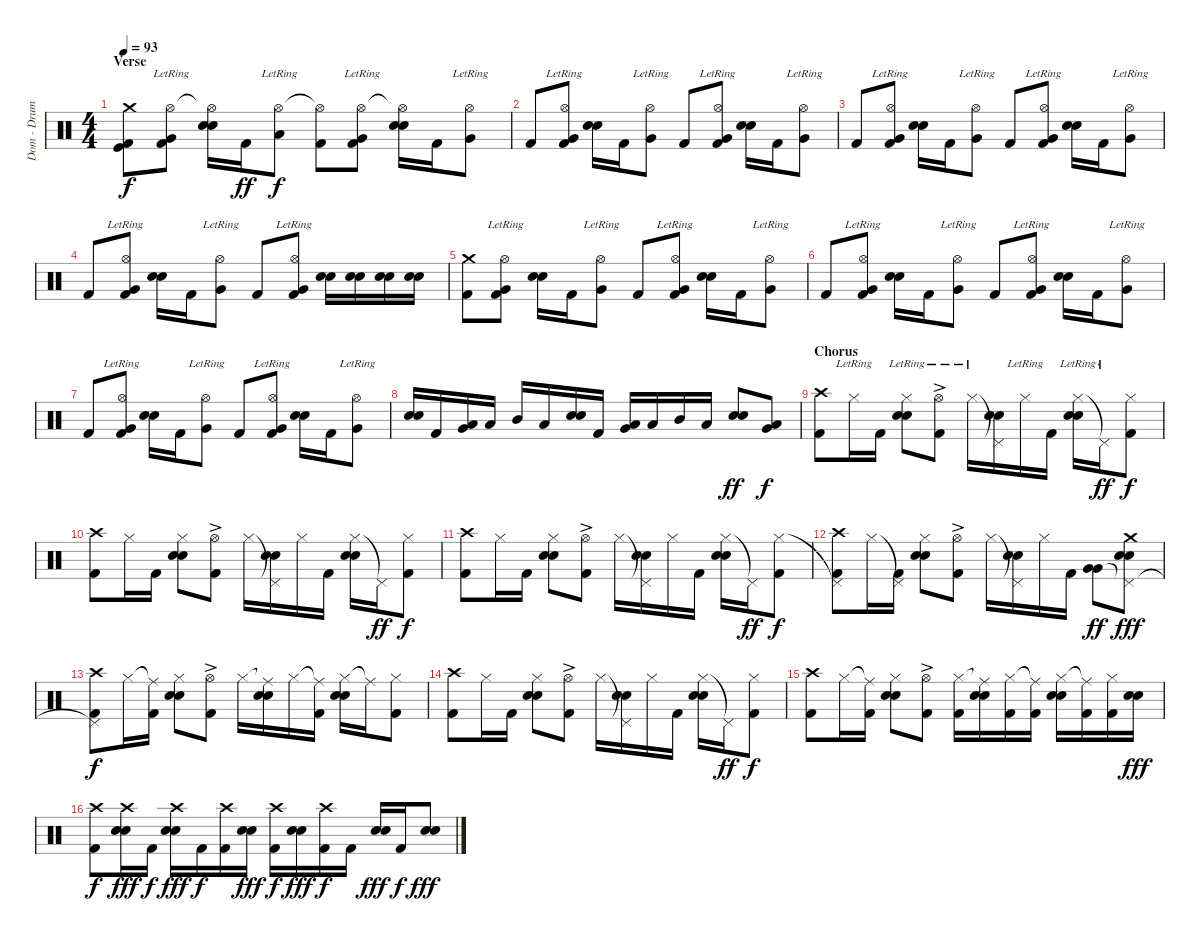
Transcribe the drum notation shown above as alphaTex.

\track ("Dom - Drums" "Dom - Drum") {instrument percussion}
\staff {score}
\articulation defaults
\ts (4 4)
\section ("" "Verse")
\tempo 93
\clef neutral
\ks c
("Crash medium (hit)" "Kick (hit)" "Kick (hit) 2").8{dy f} ("Hi-Hat (open)"{lr} "Very Low Tom (hit)" "Kick (hit) 2").8 ("Hi-Hat (open)"{t} "Electric Snare (hit)" "Snare (hit) 2").16 "Kick (hit) 2".16{dy ff} ("Hi-Hat (open)"{lr} "Low Tom (hit)").8{dy f} ("Hi-Hat (open)"{t} "Kick (hit) 2").8 ("Hi-Hat (open)"{lr} "Very Low Tom (hit)" "Kick (hit) 2").8 ("Hi-Hat (open)"{t} "Electric Snare (hit)" "Snare (hit) 2").16 "Kick (hit) 2".16 ("Hi-Hat (open)"{lr} "Very Low Tom (hit)").8 |
"Kick (hit) 2".8 ("Hi-Hat (open)"{lr} "Very Low Tom (hit)" "Kick (hit) 2").8 ("Electric Snare (hit)" "Snare (hit) 2").16 "Kick (hit) 2".16 ("Hi-Hat (open)"{lr} "Very Low Tom (hit)").8 "Kick (hit) 2".8 ("Hi-Hat (open)"{lr} "Very Low Tom (hit)" "Kick (hit) 2").8 ("Electric Snare (hit)" "Snare (hit) 2").16 "Kick (hit) 2".16 ("Hi-Hat (open)"{lr} "Very Low Tom (hit)").8 |
"Kick (hit) 2".8 ("Hi-Hat (open)"{lr} "Very Low Tom (hit)" "Kick (hit) 2").8 ("Electric Snare (hit)" "Snare (hit) 2").16 "Kick (hit) 2".16 ("Hi-Hat (open)"{lr} "Very Low Tom (hit)").8 "Kick (hit) 2".8 ("Hi-Hat (open)"{lr} "Very Low Tom (hit)" "Kick (hit) 2").8 ("Electric Snare (hit)" "Snare (hit) 2").16 "Kick (hit) 2".16 ("Hi-Hat (open)"{lr} "Very Low Tom (hit)").8 |
"Kick (hit) 2".8 ("Hi-Hat (open)"{lr} "Very Low Tom (hit)" "Kick (hit) 2").8 ("Electric Snare (hit)" "Snare (hit) 2").16 "Kick (hit) 2".16 ("Hi-Hat (open)"{lr} "Very Low Tom (hit)").8 "Kick (hit) 2".8 ("Hi-Hat (open)"{lr} "Very Low Tom (hit)" "Kick (hit) 2").8 ("Electric Snare (hit)" "Snare (hit) 2").16 ("Electric Snare (hit)" "Snare (hit) 2").16 ("Electric Snare (hit)" "Snare (hit) 2").16 ("Electric Snare (hit)" "Snare (hit) 2").16 |
("Crash medium (hit)" "Kick (hit) 2").8 ("Hi-Hat (open)"{lr} "Very Low Tom (hit)" "Kick (hit) 2").8 ("Electric Snare (hit)" "Snare (hit) 2").16 "Kick (hit) 2".16 ("Hi-Hat (open)"{lr} "Very Low Tom (hit)").8 "Kick (hit) 2".8 ("Hi-Hat (open)"{lr} "Very Low Tom (hit)" "Kick (hit) 2").8 ("Electric Snare (hit)" "Snare (hit) 2").16 "Kick (hit) 2".16 ("Hi-Hat (open)"{lr} "Very Low Tom (hit)").8 |
"Kick (hit) 2".8 ("Hi-Hat (open)"{lr} "Very Low Tom (hit)" "Kick (hit) 2").8 ("Electric Snare (hit)" "Snare (hit) 2").16 "Kick (hit) 2".16 ("Hi-Hat (open)"{lr} "Very Low Tom (hit)").8 "Kick (hit) 2".8 ("Hi-Hat (open)"{lr} "Very Low Tom (hit)" "Kick (hit) 2").8 ("Electric Snare (hit)" "Snare (hit) 2").16 "Kick (hit) 2".16 ("Hi-Hat (open)"{lr} "Very Low Tom (hit)").8 |
"Kick (hit) 2".8 ("Hi-Hat (open)"{lr} "Very Low Tom (hit)" "Kick (hit) 2").8 ("Electric Snare (hit)" "Snare (hit) 2").16 "Kick (hit) 2".16 ("Hi-Hat (open)"{lr} "Very Low Tom (hit)").8 "Kick (hit) 2".8 ("Hi-Hat (open)"{lr} "Very Low Tom (hit)" "Kick (hit) 2").8 ("Electric Snare (hit)" "Snare (hit) 2").16 "Kick (hit) 2".16 ("Hi-Hat (open)"{lr} "Very Low Tom (hit)").8 |
("Snare (hit) 2" "Electric Snare (hit)").16 "Kick (hit) 2".16 ("Very Low Tom (hit)" "Low Floor Tom (hit)").16 "Low Tom (hit)".16 "Mid Tom (hit)".16 "Low Tom (hit)".16 ("Snare (hit) 2" "Electric Snare (hit)").16 "Kick (hit) 2".16 ("Very Low Tom (hit)" "Low Floor Tom (hit)").16 "Low Tom (hit)".16 "Mid Tom (hit)".16 "Low Tom (hit)".16 ("Snare (hit) 2" "Electric Snare (hit)").8{bd 240 dy ff} ("Very Low Tom (hit)" "Low Tom (hit)").8{bd 240 dy f} |
\section ("" "Chorus")
("Crash high (hit)" "Kick (hit) 2").8 "Hi-Hat (closed)"{lr}.16 "Kick (hit) 2".16 ("Hi-Hat (closed)"{lr} "Snare (hit) 2" "Electric Snare (hit)").8 ("Hi-Hat (open)"{ac lr} "Kick (hit) 2").8 "Hi-Hat (closed)"{lr}.16 ("Pedal Hi-Hat (hit)"{t} "Snare (hit) 2" "Electric Snare (hit)").16 "Hi-Hat (closed)"{lr}.16 "Kick (hit) 2".16 ("Hi-Hat (closed)"{lr} "Snare (hit) 2" "Electric Snare (hit)").16 "Pedal Hi-Hat (hit)"{lr t}.16{dy ff} ("Hi-Hat (closed)" "Kick (hit) 2").8{dy f} |
("Crash high (hit)" "Kick (hit) 2").8 "Hi-Hat (closed)".16 "Kick (hit) 2".16 ("Hi-Hat (closed)" "Snare (hit) 2" "Electric Snare (hit)").8 ("Hi-Hat (open)"{ac} "Kick (hit) 2").8 "Hi-Hat (closed)".16 ("Pedal Hi-Hat (hit)"{t} "Snare (hit) 2" "Electric Snare (hit)").16 "Hi-Hat (closed)".16 "Kick (hit) 2".16 ("Hi-Hat (closed)" "Snare (hit) 2" "Electric Snare (hit)").16 "Pedal Hi-Hat (hit)"{t}.16{dy ff} ("Hi-Hat (closed)" "Kick (hit) 2").8{dy f} |
("Crash high (hit)" "Kick (hit) 2").8 "Hi-Hat (closed)".16 "Kick (hit) 2".16 ("Hi-Hat (closed)" "Snare (hit) 2" "Electric Snare (hit)").8 ("Hi-Hat (open)"{ac} "Kick (hit) 2").8 "Hi-Hat (closed)".16 ("Pedal Hi-Hat (hit)"{t} "Snare (hit) 2" "Electric Snare (hit)").16 "Hi-Hat (closed)".16 "Kick (hit) 2".16 ("Hi-Hat (closed)" "Snare (hit) 2" "Electric Snare (hit)").16 "Pedal Hi-Hat (hit)"{t}.16{dy ff} ("Hi-Hat (closed)" "Kick (hit) 2").8{dy f} |
("Pedal Hi-Hat (hit)"{t} "Crash high (hit)" "Kick (hit) 2").8 "Hi-Hat (closed)".16 ("Pedal Hi-Hat (hit)"{t} "Kick (hit) 2").16 ("Hi-Hat (closed)" "Snare (hit) 2" "Electric Snare (hit)").8 ("Hi-Hat (open)"{ac} "Kick (hit) 2").8 "Hi-Hat (closed)".16 ("Pedal Hi-Hat (hit)"{t} "Snare (hit) 2" "Electric Snare (hit)").16 "Hi-Hat (closed)".16 "Kick (hit) 2".16 ("Very Low Tom (hit)" "Very Low Tom (hit)").8{bd 240 dy ff} ("Pedal Hi-Hat (hit)"{t} "Crash medium (hit)" "Electric Snare (hit)" "Snare (hit) 2").8{dy fff} |
("Pedal Hi-Hat (hit)"{t} "Crash high (hit)" "Kick (hit) 2").8{dy f} "Hi-Hat (closed)".16 ("Ride (middle)"{t} "Kick (hit) 2").16 ("Hi-Hat (closed)" "Snare (hit) 2" "Electric Snare (hit)").8 ("Hi-Hat (open)"{ac} "Kick (hit) 2").8 "Hi-Hat (closed)".16 ("Ride (middle)"{t} "Snare (hit) 2" "Electric Snare (hit)").16 "Hi-Hat (closed)".16 ("Ride (middle)"{t} "Kick (hit) 2").16 ("Hi-Hat (closed)" "Snare (hit) 2" "Electric Snare (hit)").16 "Ride (middle)"{t}.16 ("Hi-Hat (closed)" "Kick (hit) 2").8 |
("Crash high (hit)" "Kick (hit) 2").8 "Hi-Hat (closed)".16 "Kick (hit) 2".16 ("Hi-Hat (closed)" "Snare (hit) 2" "Electric Snare (hit)").8 ("Hi-Hat (open)"{ac} "Kick (hit) 2").8 "Hi-Hat (closed)".16 ("Pedal Hi-Hat (hit)"{t} "Snare (hit) 2" "Electric Snare (hit)").16 "Hi-Hat (closed)".16 "Kick (hit) 2".16 ("Hi-Hat (closed)" "Snare (hit) 2" "Electric Snare (hit)").16 "Pedal Hi-Hat (hit)"{t}.16{dy ff} ("Hi-Hat (closed)" "Kick (hit) 2").8{dy f} |
("Crash high (hit)" "Kick (hit) 2").8 "Hi-Hat (closed)".16 ("Ride (middle)"{t} "Kick (hit) 2").16 ("Hi-Hat (closed)" "Snare (hit) 2" "Electric Snare (hit)").8 ("Hi-Hat (open)"{ac} "Kick (hit) 2").8 ("Hi-Hat (closed)" "Kick (hit) 2").16 ("Ride (middle)"{t} "Snare (hit) 2" "Electric Snare (hit)").16 ("Hi-Hat (closed)" "Kick (hit) 2").16 ("Ride (middle)"{t} "Kick (hit) 2").16 ("Hi-Hat (closed)" "Snare (hit) 2" "Electric Snare (hit)").16 ("Ride (middle)"{t} "Kick (hit) 2").16 ("Hi-Hat (closed)" "Kick (hit) 2").16 ("Snare (hit) 2" "Electric Snare (hit)").16{dy fff} |
("Crash high (hit)" "Kick (hit) 2").8{dy f} ("Crash high (hit)" "Electric Snare (hit)" "Snare (hit) 2").16{dy fff} "Kick (hit) 2".16{dy f} ("Crash high (hit)" "Electric Snare (hit)" "Snare (hit) 2").16{dy fff} "Kick (hit) 2".16{dy f} ("Crash high (hit)" "Kick (hit) 2").16 ("Electric Snare (hit)" "Snare (hit) 2").16{dy fff} ("Crash high (hit)" "Kick (hit) 2").16{dy f} ("Electric Snare (hit)" "Snare (hit) 2").16{dy fff} ("Crash high (hit)" "Kick (hit) 2").16{dy f} "Kick (hit) 2".16 ("Electric Snare (hit)" "Snare (hit) 2").16{dy fff} "Kick (hit) 2".16{dy f} ("Electric Snare (hit)" "Snare (hit) 2").8{bd 240 dy fff}
